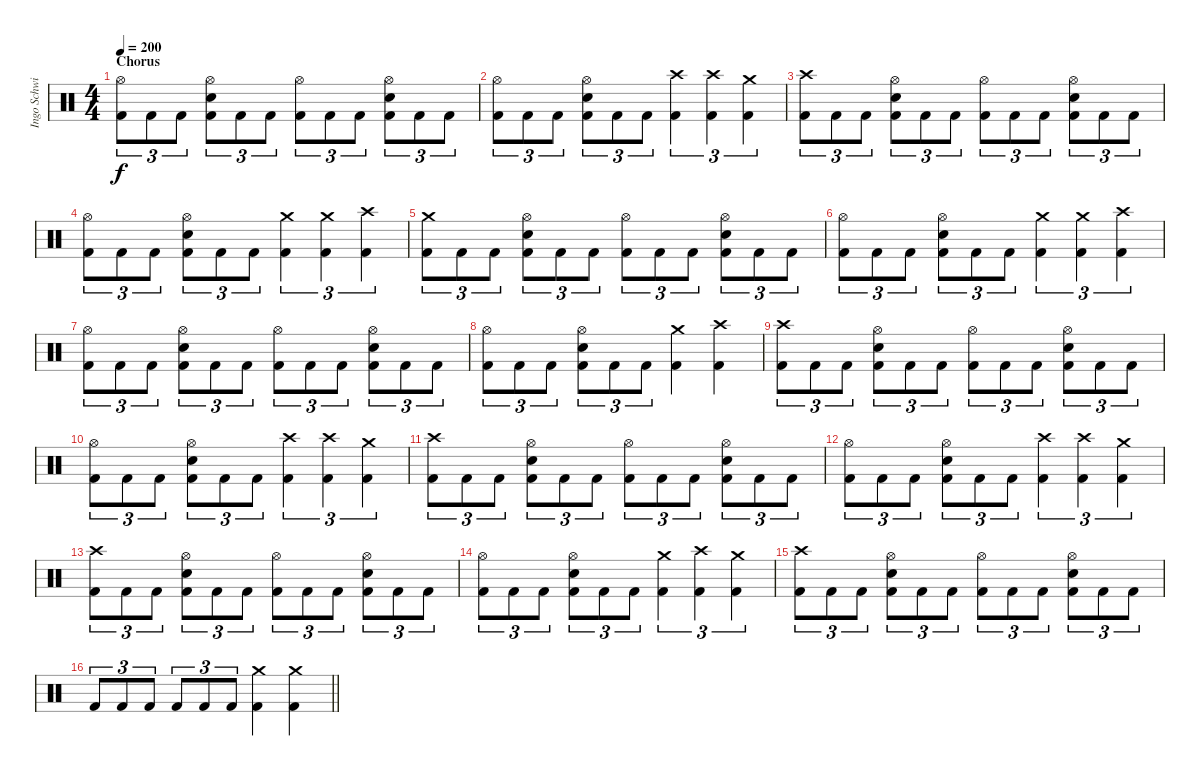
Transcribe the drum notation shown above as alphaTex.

\track ("Ingo Schwichtenberg" "Ingo Schwi") {instrument percussion}
\staff {score}
\articulation defaults
\ts (4 4)
\section ("" "Chorus")
\tempo 200
\clef neutral
\ks c
("Hi-Hat (open)" "Kick (hit) 2").8{tu (3 2) dy f} "Kick (hit) 2".8{tu (3 2)} "Kick (hit) 2".8{tu (3 2)} ("Hi-Hat (open)" "Snare (hit) 2" "Kick (hit) 2").8{tu (3 2)} "Kick (hit) 2".8{tu (3 2)} "Kick (hit) 2".8{tu (3 2)} ("Hi-Hat (open)" "Kick (hit) 2").8{tu (3 2)} "Kick (hit) 2".8{tu (3 2)} "Kick (hit) 2".8{tu (3 2)} ("Hi-Hat (open)" "Snare (hit) 2" "Kick (hit) 2").8{tu (3 2)} "Kick (hit) 2".8{tu (3 2)} "Kick (hit) 2".8{tu (3 2)} |
("Hi-Hat (open)" "Kick (hit) 2").8{tu (3 2)} "Kick (hit) 2".8{tu (3 2)} "Kick (hit) 2".8{tu (3 2)} ("Hi-Hat (open)" "Snare (hit) 2" "Kick (hit) 2").8{tu (3 2)} "Kick (hit) 2".8{tu (3 2)} "Kick (hit) 2".8{tu (3 2)} ("Crash high (hit)" "Kick (hit) 2").4{tu (3 2)} ("Crash high (hit)" "Kick (hit) 2").4{tu (3 2)} ("Crash medium (hit)" "Kick (hit) 2").4{tu (3 2)} |
("Crash high (hit)" "Kick (hit) 2").8{tu (3 2)} "Kick (hit) 2".8{tu (3 2)} "Kick (hit) 2".8{tu (3 2)} ("Hi-Hat (open)" "Snare (hit) 2" "Kick (hit) 2").8{tu (3 2)} "Kick (hit) 2".8{tu (3 2)} "Kick (hit) 2".8{tu (3 2)} ("Hi-Hat (open)" "Kick (hit) 2").8{tu (3 2)} "Kick (hit) 2".8{tu (3 2)} "Kick (hit) 2".8{tu (3 2)} ("Hi-Hat (open)" "Snare (hit) 2" "Kick (hit) 2").8{tu (3 2)} "Kick (hit) 2".8{tu (3 2)} "Kick (hit) 2".8{tu (3 2)} |
("Hi-Hat (open)" "Kick (hit) 2").8{tu (3 2)} "Kick (hit) 2".8{tu (3 2)} "Kick (hit) 2".8{tu (3 2)} ("Hi-Hat (open)" "Snare (hit) 2" "Kick (hit) 2").8{tu (3 2)} "Kick (hit) 2".8{tu (3 2)} "Kick (hit) 2".8{tu (3 2)} ("Crash medium (hit)" "Kick (hit) 2").4{tu (3 2)} ("Crash medium (hit)" "Kick (hit) 2").4{tu (3 2)} ("Crash high (hit)" "Kick (hit) 2").4{tu (3 2)} |
("Crash medium (hit)" "Kick (hit) 2").8{tu (3 2)} "Kick (hit) 2".8{tu (3 2)} "Kick (hit) 2".8{tu (3 2)} ("Hi-Hat (open)" "Snare (hit) 2" "Kick (hit) 2").8{tu (3 2)} "Kick (hit) 2".8{tu (3 2)} "Kick (hit) 2".8{tu (3 2)} ("Hi-Hat (open)" "Kick (hit) 2").8{tu (3 2)} "Kick (hit) 2".8{tu (3 2)} "Kick (hit) 2".8{tu (3 2)} ("Hi-Hat (open)" "Snare (hit) 2" "Kick (hit) 2").8{tu (3 2)} "Kick (hit) 2".8{tu (3 2)} "Kick (hit) 2".8{tu (3 2)} |
("Hi-Hat (open)" "Kick (hit) 2").8{tu (3 2)} "Kick (hit) 2".8{tu (3 2)} "Kick (hit) 2".8{tu (3 2)} ("Hi-Hat (open)" "Snare (hit) 2" "Kick (hit) 2").8{tu (3 2)} "Kick (hit) 2".8{tu (3 2)} "Kick (hit) 2".8{tu (3 2)} ("Crash medium (hit)" "Kick (hit) 2").4{tu (3 2)} ("Crash medium (hit)" "Kick (hit) 2").4{tu (3 2)} ("Crash high (hit)" "Kick (hit) 2").4{tu (3 2)} |
("Hi-Hat (open)" "Kick (hit) 2").8{tu (3 2)} "Kick (hit) 2".8{tu (3 2)} "Kick (hit) 2".8{tu (3 2)} ("Hi-Hat (open)" "Snare (hit) 2" "Kick (hit) 2").8{tu (3 2)} "Kick (hit) 2".8{tu (3 2)} "Kick (hit) 2".8{tu (3 2)} ("Hi-Hat (open)" "Kick (hit) 2").8{tu (3 2)} "Kick (hit) 2".8{tu (3 2)} "Kick (hit) 2".8{tu (3 2)} ("Hi-Hat (open)" "Snare (hit) 2" "Kick (hit) 2").8{tu (3 2)} "Kick (hit) 2".8{tu (3 2)} "Kick (hit) 2".8{tu (3 2)} |
("Hi-Hat (open)" "Kick (hit) 2").8{tu (3 2)} "Kick (hit) 2".8{tu (3 2)} "Kick (hit) 2".8{tu (3 2)} ("Hi-Hat (open)" "Snare (hit) 2" "Kick (hit) 2").8{tu (3 2)} "Kick (hit) 2".8{tu (3 2)} "Kick (hit) 2".8{tu (3 2)} ("Crash medium (hit)" "Kick (hit) 2").4 ("Crash high (hit)" "Kick (hit) 2").4 |
("Crash high (hit)" "Kick (hit) 2").8{tu (3 2)} "Kick (hit) 2".8{tu (3 2)} "Kick (hit) 2".8{tu (3 2)} ("Hi-Hat (open)" "Snare (hit) 2" "Kick (hit) 2").8{tu (3 2)} "Kick (hit) 2".8{tu (3 2)} "Kick (hit) 2".8{tu (3 2)} ("Hi-Hat (open)" "Kick (hit) 2").8{tu (3 2)} "Kick (hit) 2".8{tu (3 2)} "Kick (hit) 2".8{tu (3 2)} ("Hi-Hat (open)" "Snare (hit) 2" "Kick (hit) 2").8{tu (3 2)} "Kick (hit) 2".8{tu (3 2)} "Kick (hit) 2".8{tu (3 2)} |
("Hi-Hat (open)" "Kick (hit) 2").8{tu (3 2)} "Kick (hit) 2".8{tu (3 2)} "Kick (hit) 2".8{tu (3 2)} ("Hi-Hat (open)" "Snare (hit) 2" "Kick (hit) 2").8{tu (3 2)} "Kick (hit) 2".8{tu (3 2)} "Kick (hit) 2".8{tu (3 2)} ("Crash high (hit)" "Kick (hit) 2").4{tu (3 2)} ("Crash high (hit)" "Kick (hit) 2").4{tu (3 2)} ("Crash medium (hit)" "Kick (hit) 2").4{tu (3 2)} |
("Crash high (hit)" "Kick (hit) 2").8{tu (3 2)} "Kick (hit) 2".8{tu (3 2)} "Kick (hit) 2".8{tu (3 2)} ("Hi-Hat (open)" "Snare (hit) 2" "Kick (hit) 2").8{tu (3 2)} "Kick (hit) 2".8{tu (3 2)} "Kick (hit) 2".8{tu (3 2)} ("Hi-Hat (open)" "Kick (hit) 2").8{tu (3 2)} "Kick (hit) 2".8{tu (3 2)} "Kick (hit) 2".8{tu (3 2)} ("Hi-Hat (open)" "Snare (hit) 2" "Kick (hit) 2").8{tu (3 2)} "Kick (hit) 2".8{tu (3 2)} "Kick (hit) 2".8{tu (3 2)} |
("Hi-Hat (open)" "Kick (hit) 2").8{tu (3 2)} "Kick (hit) 2".8{tu (3 2)} "Kick (hit) 2".8{tu (3 2)} ("Hi-Hat (open)" "Snare (hit) 2" "Kick (hit) 2").8{tu (3 2)} "Kick (hit) 2".8{tu (3 2)} "Kick (hit) 2".8{tu (3 2)} ("Crash high (hit)" "Kick (hit) 2").4{tu (3 2)} ("Crash high (hit)" "Kick (hit) 2").4{tu (3 2)} ("Crash medium (hit)" "Kick (hit) 2").4{tu (3 2)} |
("Crash high (hit)" "Kick (hit) 2").8{tu (3 2)} "Kick (hit) 2".8{tu (3 2)} "Kick (hit) 2".8{tu (3 2)} ("Hi-Hat (open)" "Snare (hit) 2" "Kick (hit) 2").8{tu (3 2)} "Kick (hit) 2".8{tu (3 2)} "Kick (hit) 2".8{tu (3 2)} ("Hi-Hat (open)" "Kick (hit) 2").8{tu (3 2)} "Kick (hit) 2".8{tu (3 2)} "Kick (hit) 2".8{tu (3 2)} ("Hi-Hat (open)" "Snare (hit) 2" "Kick (hit) 2").8{tu (3 2)} "Kick (hit) 2".8{tu (3 2)} "Kick (hit) 2".8{tu (3 2)} |
("Hi-Hat (open)" "Kick (hit) 2").8{tu (3 2)} "Kick (hit) 2".8{tu (3 2)} "Kick (hit) 2".8{tu (3 2)} ("Hi-Hat (open)" "Snare (hit) 2" "Kick (hit) 2").8{tu (3 2)} "Kick (hit) 2".8{tu (3 2)} "Kick (hit) 2".8{tu (3 2)} ("Crash medium (hit)" "Kick (hit) 2").4{tu (3 2)} ("Crash high (hit)" "Kick (hit) 2").4{tu (3 2)} ("Crash medium (hit)" "Kick (hit) 2").4{tu (3 2)} |
("Crash high (hit)" "Kick (hit) 2").8{tu (3 2)} "Kick (hit) 2".8{tu (3 2)} "Kick (hit) 2".8{tu (3 2)} ("Hi-Hat (open)" "Snare (hit) 2" "Kick (hit) 2").8{tu (3 2)} "Kick (hit) 2".8{tu (3 2)} "Kick (hit) 2".8{tu (3 2)} ("Hi-Hat (open)" "Kick (hit) 2").8{tu (3 2)} "Kick (hit) 2".8{tu (3 2)} "Kick (hit) 2".8{tu (3 2)} ("Hi-Hat (open)" "Snare (hit) 2" "Kick (hit) 2").8{tu (3 2)} "Kick (hit) 2".8{tu (3 2)} "Kick (hit) 2".8{tu (3 2)} |
\barLineRight lightlight "Kick (hit) 2".8{tu (3 2)} "Kick (hit) 2".8{tu (3 2)} "Kick (hit) 2".8{tu (3 2)} "Kick (hit) 2".8{tu (3 2)} "Kick (hit) 2".8{tu (3 2)} "Kick (hit) 2".8{tu (3 2)}
("Crash medium (hit)" "Kick (hit) 2").4 ("Crash medium (hit)" "Kick (hit) 2").4
